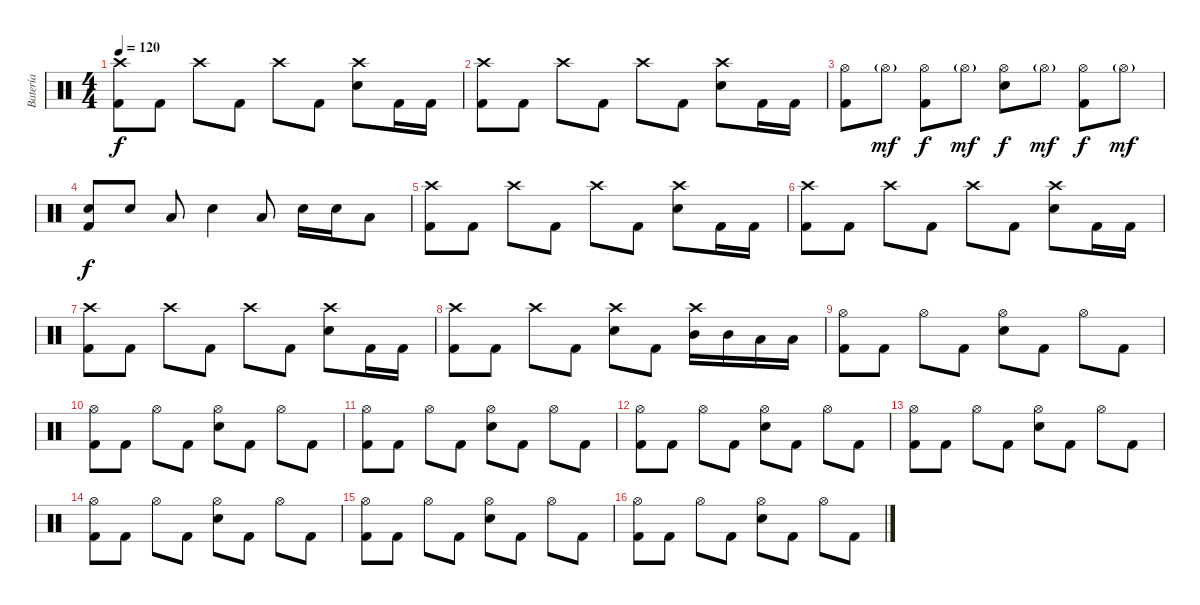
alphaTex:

\track ("Batería" "Batería") {instrument percussion}
\staff {score}
\articulation defaults
\ts (4 4)
\tempo 120
\clef neutral
\ks c
("Crash high (hit)" "Kick (hit) 2").8{dy f} "Kick (hit) 2".8 "Crash high (hit)".8 "Kick (hit) 2".8 "Crash high (hit)".8 "Kick (hit) 2".8 ("Crash high (hit)" "Electric Snare (hit)").8 "Kick (hit) 2".16 "Kick (hit) 2".16 |
("Crash high (hit)" "Kick (hit) 2").8 "Kick (hit) 2".8 "Crash high (hit)".8 "Kick (hit) 2".8 "Crash high (hit)".8 "Kick (hit) 2".8 ("Crash high (hit)" "Electric Snare (hit)").8 "Kick (hit) 2".16 "Kick (hit) 2".16 |
("Hi-Hat (open)" "Kick (hit) 2").8 "Hi-Hat (open)"{g}.8{dy mf} ("Hi-Hat (open)" "Kick (hit) 2").8{dy f} "Hi-Hat (open)"{g}.8{dy mf} ("Hi-Hat (open)" "Electric Snare (hit)").8{dy f} "Hi-Hat (open)"{g}.8{dy mf} ("Hi-Hat (open)" "Kick (hit) 2").8{dy f} "Hi-Hat (open)"{g}.8{dy mf} |
("Snare (hit) 2" "Kick (hit) 2").8{dy f} "Snare (hit) 2".8 "Low Tom (hit)".8 "Snare (hit) 2".4 "Low Tom (hit)".8 "Snare (hit) 2".16 "Snare (hit) 2".16 "Low Tom (hit)".8 |
("Crash high (hit)" "Kick (hit) 2").8 "Kick (hit) 2".8 "Crash high (hit)".8 "Kick (hit) 2".8 "Crash high (hit)".8 "Kick (hit) 2".8 ("Crash high (hit)" "Electric Snare (hit)").8 "Kick (hit) 2".16 "Kick (hit) 2".16 |
("Crash high (hit)" "Kick (hit) 2").8 "Kick (hit) 2".8 "Crash high (hit)".8 "Kick (hit) 2".8 "Crash high (hit)".8 "Kick (hit) 2".8 ("Crash high (hit)" "Electric Snare (hit)").8 "Kick (hit) 2".16 "Kick (hit) 2".16 |
("Crash high (hit)" "Kick (hit) 2").8 "Kick (hit) 2".8 "Crash high (hit)".8 "Kick (hit) 2".8 "Crash high (hit)".8 "Kick (hit) 2".8 ("Crash high (hit)" "Electric Snare (hit)").8 "Kick (hit) 2".16 "Kick (hit) 2".16 |
("Crash high (hit)" "Kick (hit) 2").8 "Kick (hit) 2".8 "Crash high (hit)".8 "Kick (hit) 2".8 ("Crash high (hit)" "Electric Snare (hit)").8 "Kick (hit) 2".8 ("Crash high (hit)" "Mid Tom (hit)").16 "Mid Tom (hit)".16 "Low Tom (hit)".16 "Low Tom (hit)".16 |
("Hi-Hat (open)" "Kick (hit) 2").8 "Kick (hit) 2".8 "Hi-Hat (open)".8 "Kick (hit) 2".8 ("Hi-Hat (open)" "Electric Snare (hit)").8 "Kick (hit) 2".8 "Hi-Hat (open)".8 "Kick (hit) 2".8 |
("Hi-Hat (open)" "Kick (hit) 2").8 "Kick (hit) 2".8 "Hi-Hat (open)".8 "Kick (hit) 2".8 ("Hi-Hat (open)" "Electric Snare (hit)").8 "Kick (hit) 2".8 "Hi-Hat (open)".8 "Kick (hit) 2".8 |
("Hi-Hat (open)" "Kick (hit) 2").8 "Kick (hit) 2".8 "Hi-Hat (open)".8 "Kick (hit) 2".8 ("Hi-Hat (open)" "Electric Snare (hit)").8 "Kick (hit) 2".8 "Hi-Hat (open)".8 "Kick (hit) 2".8 |
("Hi-Hat (open)" "Kick (hit) 2").8 "Kick (hit) 2".8 "Hi-Hat (open)".8 "Kick (hit) 2".8 ("Hi-Hat (open)" "Electric Snare (hit)").8 "Kick (hit) 2".8 "Hi-Hat (open)".8 "Kick (hit) 2".8 |
("Hi-Hat (open)" "Kick (hit) 2").8 "Kick (hit) 2".8 "Hi-Hat (open)".8 "Kick (hit) 2".8 ("Hi-Hat (open)" "Electric Snare (hit)").8 "Kick (hit) 2".8 "Hi-Hat (open)".8 "Kick (hit) 2".8 |
("Hi-Hat (open)" "Kick (hit) 2").8 "Kick (hit) 2".8 "Hi-Hat (open)".8 "Kick (hit) 2".8 ("Hi-Hat (open)" "Electric Snare (hit)").8 "Kick (hit) 2".8 "Hi-Hat (open)".8 "Kick (hit) 2".8 |
("Hi-Hat (open)" "Kick (hit) 2").8 "Kick (hit) 2".8 "Hi-Hat (open)".8 "Kick (hit) 2".8 ("Hi-Hat (open)" "Electric Snare (hit)").8 "Kick (hit) 2".8 "Hi-Hat (open)".8 "Kick (hit) 2".8 |
("Hi-Hat (open)" "Kick (hit) 2").8 "Kick (hit) 2".8 "Hi-Hat (open)".8 "Kick (hit) 2".8 ("Hi-Hat (open)" "Electric Snare (hit)").8 "Kick (hit) 2".8 "Hi-Hat (open)".8 "Kick (hit) 2".8
